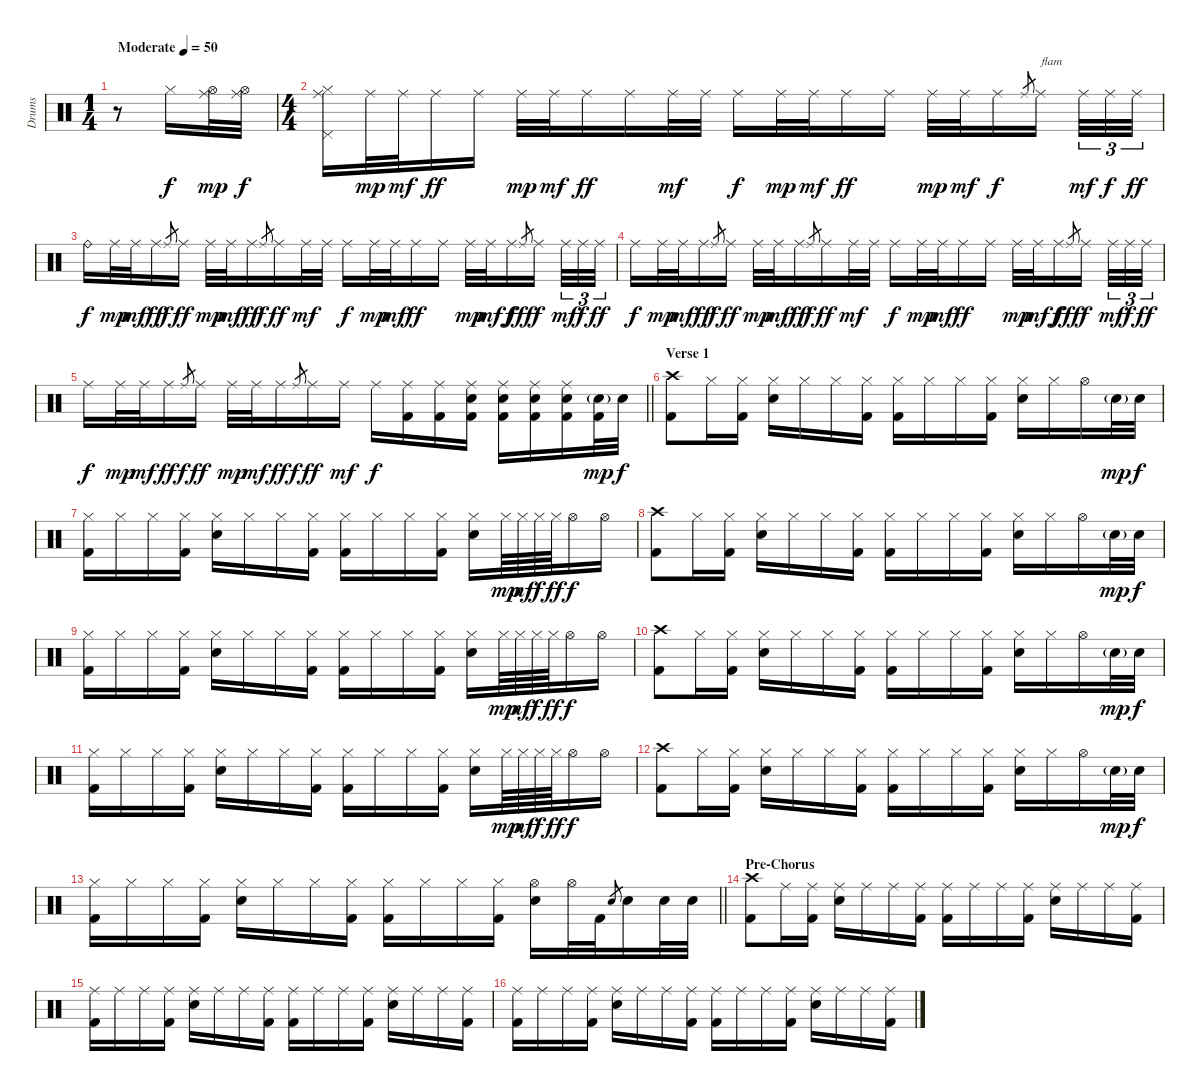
\track ("Drums" "Drums") {instrument percussion}
\staff {score}
\articulation defaults
\ts (1 4)
\tempo (50 "Moderate")
\clef neutral
\ks c
r.8{dy f} "Hi-Hat (closed)".16 ("Ride (middle)" "Hi-Hat (open)").32{dy mp} ("Ride (middle)" "Hi-Hat (open)").32{dy f} |
\ts (4 4)
("Ride (middle)" "Hi-Hat (closed)" "Pedal Hi-Hat (hit)").16 "Ride (middle)".32{dy mp} "Ride (middle)".32{dy mf} "Ride (middle)".16{dy ff} "Ride (middle)".16 "Ride (middle)".32{dy mp} "Ride (middle)".32{dy mf} "Ride (middle)".16{dy ff} "Ride (middle)".16 "Ride (middle)".32{dy mf} "Ride (middle)".32 "Ride (middle)".16{dy f} "Ride (middle)".32{dy mp} "Ride (middle)".32{dy mf} "Ride (middle)".16{dy ff} "Ride (middle)".16 "Ride (middle)".32{dy mp} "Ride (middle)".32{dy mf} "Ride (middle)".16{dy f} "Ride (middle)".8{gr} "Ride (middle)".16{txt "flam" beam splitsecondary} "Ride (middle)".32{tu (3 2) dy mf} "Ride (middle)".32{tu (3 2) dy f} "Ride (middle)".32{tu (3 2) dy ff} |
"Ride (bell)".16{dy f} "Ride (middle)".32{dy mp} "Ride (middle)".32{dy mf} "Ride (middle)".16{dy ff} "Ride (middle)".8{gr dy f} "Ride (middle)".16{dy ff} "Ride (middle)".32{dy mp} "Ride (middle)".32{dy mf} "Ride (middle)".16{dy ff} "Ride (middle)".8{gr dy f} "Ride (middle)".16{dy ff} "Ride (middle)".32{dy mf} "Ride (middle)".32 "Ride (middle)".16{dy f} "Ride (middle)".32{dy mp} "Ride (middle)".32{dy mf} "Ride (middle)".16{dy ff} "Ride (middle)".16 "Ride (middle)".32{dy mp} "Ride (middle)".32{dy mf} "Ride (middle)".16{dy f} "Ride (middle)".8{gr dy fff} "Ride (middle)".16{dy f beam splitsecondary} "Ride (middle)".32{tu (3 2) dy mf} "Ride (middle)".32{tu (3 2) dy f} "Ride (middle)".32{tu (3 2) dy ff} |
"Ride (middle)".16{dy f} "Ride (middle)".32{dy mp} "Ride (middle)".32{dy mf} "Ride (middle)".16{dy ff} "Ride (middle)".8{gr dy f} "Ride (middle)".16{dy ff} "Ride (middle)".32{dy mp} "Ride (middle)".32{dy mf} "Ride (middle)".16{dy ff} "Ride (middle)".8{gr dy f} "Ride (middle)".16{dy ff} "Ride (middle)".32{dy mf} "Ride (middle)".32 "Ride (middle)".16{dy f} "Ride (middle)".32{dy mp} "Ride (middle)".32{dy mf} "Ride (middle)".16{dy ff} "Ride (middle)".16 "Ride (middle)".32{dy mp} "Ride (middle)".32{dy mf} "Ride (middle)".16{dy f} "Ride (middle)".8{gr dy fff} "Ride (middle)".16{dy f beam splitsecondary} "Ride (middle)".32{tu (3 2) dy mf} "Ride (middle)".32{tu (3 2) dy f} "Ride (middle)".32{tu (3 2) dy ff} |
\barLineRight lightlight "Ride (middle)".16{dy f} "Ride (middle)".32{dy mp} "Ride (middle)".32{dy mf} "Ride (middle)".16{dy ff} "Ride (middle)".8{gr dy f} "Ride (middle)".16{dy ff} "Ride (middle)".32{dy mp} "Ride (middle)".32{dy mf} "Ride (middle)".16{dy ff} "Ride (middle)".8{gr dy f} "Ride (middle)".16{dy ff} "Ride (middle)".16{dy mf} "Ride (middle)".16{dy f}
("Ride (middle)" "Kick (hit) 2").16 ("Ride (middle)" "Kick (hit) 2").16 ("Ride (middle)" "Snare (hit) 2" "Kick (hit) 2").16 ("Ride (middle)" "Snare (hit) 2" "Kick (hit) 2").16 ("Ride (middle)" "Snare (hit) 2" "Kick (hit) 2").16 ("Ride (middle)" "Snare (hit) 2" "Kick (hit) 2").16 ("Snare (hit) 2"{g} "Kick (hit) 2").32{dy mp} "Snare (hit) 2".32{dy f} |
\section ("" "Verse 1")
("Crash high (hit)" "Kick (hit) 2").8 "Hi-Hat (closed)".16 ("Hi-Hat (closed)" "Kick (hit) 2").16 ("Hi-Hat (closed)" "Snare (hit) 2").16 "Hi-Hat (closed)".16 "Hi-Hat (closed)".16 ("Hi-Hat (closed)" "Kick (hit) 2").16 ("Hi-Hat (closed)" "Kick (hit) 2").16 "Hi-Hat (closed)".16 "Hi-Hat (closed)".16 ("Hi-Hat (closed)" "Kick (hit) 2").16 ("Hi-Hat (closed)" "Snare (hit) 2").16 "Hi-Hat (closed)".16 "Hi-Hat (open)".16 "Snare (hit) 2"{g}.32{dy mp} "Snare (hit) 2".32{dy f} |
("Hi-Hat (closed)" "Kick (hit) 2").16 "Hi-Hat (closed)".16 "Hi-Hat (closed)".16 ("Hi-Hat (closed)" "Kick (hit) 2").16 ("Hi-Hat (closed)" "Snare (hit) 2").16 "Hi-Hat (closed)".16 "Hi-Hat (closed)".16 ("Hi-Hat (closed)" "Kick (hit) 2").16 ("Hi-Hat (closed)" "Kick (hit) 2").16 "Hi-Hat (closed)".16 "Hi-Hat (closed)".16 ("Hi-Hat (closed)" "Kick (hit) 2").16 ("Hi-Hat (closed)" "Snare (hit) 2").16 "Hi-Hat (closed)".64{dy mp} "Hi-Hat (closed)".64{dy mf} "Hi-Hat (closed)".64{dy f} "Hi-Hat (closed)".64{dy ff} "Hi-Hat (open)".16{dy f} "Hi-Hat (open)".16 |
("Crash high (hit)" "Kick (hit) 2").8 "Hi-Hat (closed)".16 ("Hi-Hat (closed)" "Kick (hit) 2").16 ("Hi-Hat (closed)" "Snare (hit) 2").16 "Hi-Hat (closed)".16 "Hi-Hat (closed)".16 ("Hi-Hat (closed)" "Kick (hit) 2").16 ("Hi-Hat (closed)" "Kick (hit) 2").16 "Hi-Hat (closed)".16 "Hi-Hat (closed)".16 ("Hi-Hat (closed)" "Kick (hit) 2").16 ("Hi-Hat (closed)" "Snare (hit) 2").16 "Hi-Hat (closed)".16 "Hi-Hat (open)".16 "Snare (hit) 2"{g}.32{dy mp} "Snare (hit) 2".32{dy f} |
("Hi-Hat (closed)" "Kick (hit) 2").16 "Hi-Hat (closed)".16 "Hi-Hat (closed)".16 ("Hi-Hat (closed)" "Kick (hit) 2").16 ("Hi-Hat (closed)" "Snare (hit) 2").16 "Hi-Hat (closed)".16 "Hi-Hat (closed)".16 ("Hi-Hat (closed)" "Kick (hit) 2").16 ("Hi-Hat (closed)" "Kick (hit) 2").16 "Hi-Hat (closed)".16 "Hi-Hat (closed)".16 ("Hi-Hat (closed)" "Kick (hit) 2").16 ("Hi-Hat (closed)" "Snare (hit) 2").16 "Hi-Hat (closed)".64{dy mp} "Hi-Hat (closed)".64{dy mf} "Hi-Hat (closed)".64{dy f} "Hi-Hat (closed)".64{dy ff} "Hi-Hat (open)".16{dy f} "Hi-Hat (open)".16 |
("Crash high (hit)" "Kick (hit) 2").8 "Hi-Hat (closed)".16 ("Hi-Hat (closed)" "Kick (hit) 2").16 ("Hi-Hat (closed)" "Snare (hit) 2").16 "Hi-Hat (closed)".16 "Hi-Hat (closed)".16 ("Hi-Hat (closed)" "Kick (hit) 2").16 ("Hi-Hat (closed)" "Kick (hit) 2").16 "Hi-Hat (closed)".16 "Hi-Hat (closed)".16 ("Hi-Hat (closed)" "Kick (hit) 2").16 ("Hi-Hat (closed)" "Snare (hit) 2").16 "Hi-Hat (closed)".16 "Hi-Hat (open)".16 "Snare (hit) 2"{g}.32{dy mp} "Snare (hit) 2".32{dy f} |
("Hi-Hat (closed)" "Kick (hit) 2").16 "Hi-Hat (closed)".16 "Hi-Hat (closed)".16 ("Hi-Hat (closed)" "Kick (hit) 2").16 ("Hi-Hat (closed)" "Snare (hit) 2").16 "Hi-Hat (closed)".16 "Hi-Hat (closed)".16 ("Hi-Hat (closed)" "Kick (hit) 2").16 ("Hi-Hat (closed)" "Kick (hit) 2").16 "Hi-Hat (closed)".16 "Hi-Hat (closed)".16 ("Hi-Hat (closed)" "Kick (hit) 2").16 ("Hi-Hat (closed)" "Snare (hit) 2").16 "Hi-Hat (closed)".64{dy mp} "Hi-Hat (closed)".64{dy mf} "Hi-Hat (closed)".64{dy f} "Hi-Hat (closed)".64{dy ff} "Hi-Hat (open)".16{dy f} "Hi-Hat (open)".16 |
("Crash high (hit)" "Kick (hit) 2").8 "Hi-Hat (closed)".16 ("Hi-Hat (closed)" "Kick (hit) 2").16 ("Hi-Hat (closed)" "Snare (hit) 2").16 "Hi-Hat (closed)".16 "Hi-Hat (closed)".16 ("Hi-Hat (closed)" "Kick (hit) 2").16 ("Hi-Hat (closed)" "Kick (hit) 2").16 "Hi-Hat (closed)".16 "Hi-Hat (closed)".16 ("Hi-Hat (closed)" "Kick (hit) 2").16 ("Hi-Hat (closed)" "Snare (hit) 2").16 "Hi-Hat (closed)".16 "Hi-Hat (open)".16 "Snare (hit) 2"{g}.32{dy mp} "Snare (hit) 2".32{dy f} |
\barLineRight lightlight
("Hi-Hat (closed)" "Kick (hit) 2").16 "Hi-Hat (closed)".16 "Hi-Hat (closed)".16 ("Hi-Hat (closed)" "Kick (hit) 2").16 ("Hi-Hat (closed)" "Snare (hit) 2").16 "Hi-Hat (closed)".16 "Hi-Hat (closed)".16 ("Hi-Hat (closed)" "Kick (hit) 2").16 ("Hi-Hat (closed)" "Kick (hit) 2").16 "Hi-Hat (closed)".16 "Hi-Hat (closed)".16 ("Hi-Hat (closed)" "Kick (hit) 2").16 ("Hi-Hat (open)" "Snare (hit) 2").16 "Hi-Hat (open)".32 "Kick (hit) 2".32 "Snare (hit) 2".8{gr} "Snare (hit) 2".16 "Snare (hit) 2".32 "Snare (hit) 2".32 |
\section ("" "Pre-Chorus")
("Crash high (hit)" "Kick (hit) 2").8 "Ride (middle)".16 ("Ride (middle)" "Kick (hit) 2").16 ("Ride (middle)" "Snare (hit) 2").16 "Ride (middle)".16 "Ride (middle)".16 ("Ride (middle)" "Kick (hit) 2").16 ("Ride (middle)" "Kick (hit) 2").16 "Ride (middle)".16 "Ride (middle)".16 ("Ride (middle)" "Kick (hit) 2").16 ("Ride (middle)" "Snare (hit) 2").16 "Ride (middle)".16 "Ride (middle)".16 ("Ride (middle)" "Kick (hit) 2").16 |
("Ride (middle)" "Kick (hit) 2").16 "Ride (middle)".16 "Ride (middle)".16 ("Ride (middle)" "Kick (hit) 2").16 ("Ride (middle)" "Snare (hit) 2").16 "Ride (middle)".16 "Ride (middle)".16 ("Ride (middle)" "Kick (hit) 2").16 ("Ride (middle)" "Kick (hit) 2").16 "Ride (middle)".16 "Ride (middle)".16 ("Ride (middle)" "Kick (hit) 2").16 ("Ride (middle)" "Snare (hit) 2").16 "Ride (middle)".16 "Ride (middle)".16 ("Ride (middle)" "Kick (hit) 2").16 |
("Ride (middle)" "Kick (hit) 2").16 "Ride (middle)".16 "Ride (middle)".16 ("Ride (middle)" "Kick (hit) 2").16 ("Ride (middle)" "Snare (hit) 2").16 "Ride (middle)".16 "Ride (middle)".16 ("Ride (middle)" "Kick (hit) 2").16 ("Ride (middle)" "Kick (hit) 2").16 "Ride (middle)".16 "Ride (middle)".16 ("Ride (middle)" "Kick (hit) 2").16 ("Ride (middle)" "Snare (hit) 2").16 "Ride (middle)".16 "Ride (middle)".16 ("Ride (middle)" "Kick (hit) 2").16
